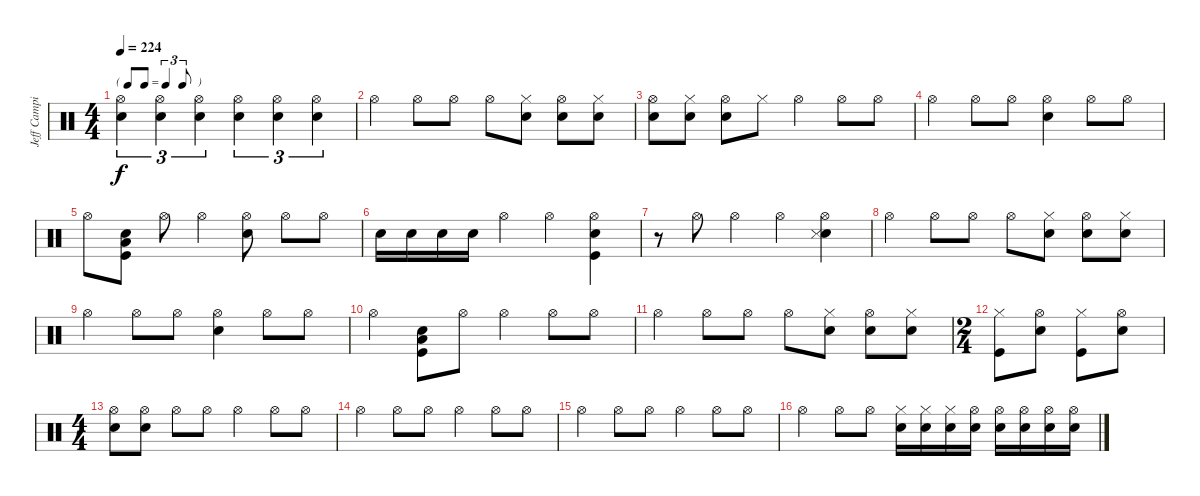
\track ("Jeff Campitelli" "Jeff Campi") {instrument percussion}
\staff {score}
\articulation defaults
\ts (4 4)
\tf triplet8th
\tempo 224
\clef neutral
\ks c
("Hi-Hat (open)" "Snare (hit) 2").4{tu (3 2) dy f} ("Hi-Hat (open)" "Snare (hit) 2").4{tu (3 2)} ("Hi-Hat (open)" "Snare (hit) 2").4{tu (3 2)} ("Hi-Hat (open)" "Snare (hit) 2").4{tu (3 2)} ("Hi-Hat (open)" "Snare (hit) 2").4{tu (3 2)} ("Hi-Hat (open)" "Snare (hit) 2").4{tu (3 2)} |
"Hi-Hat (open)".4 "Hi-Hat (open)".8 "Hi-Hat (open)".8 "Hi-Hat (open)".8 ("Hi-Hat (closed)" "Snare (hit) 2").8 ("Snare (hit) 2" "Hi-Hat (open)").8 ("Hi-Hat (closed)" "Snare (hit) 2").8 |
("Snare (hit) 2" "Hi-Hat (open)").8 ("Snare (hit) 2" "Hi-Hat (closed)").8 ("Snare (hit) 2" "Hi-Hat (open)").8 "Hi-Hat (closed)".8 "Hi-Hat (open)".4 "Hi-Hat (open)".8 "Hi-Hat (open)".8 |
"Hi-Hat (open)".4 "Hi-Hat (open)".8 "Hi-Hat (open)".8 ("Snare (hit) 2" "Hi-Hat (open)").4 "Hi-Hat (open)".8 "Hi-Hat (open)".8 |
"Hi-Hat (open)".8 ("Kick (hit)" "Snare (hit) 2" "Low Floor Tom (hit)").8 "Hi-Hat (open)".8 "Hi-Hat (open)".4 ("Snare (hit) 2" "Hi-Hat (open)").8 "Hi-Hat (open)".8 "Hi-Hat (open)".8 |
"Snare (hit) 2".16 "Snare (hit) 2".16 "Snare (hit) 2".16 "Snare (hit) 2".16 "Hi-Hat (open)".4 "Hi-Hat (open)".4 ("Snare (hit) 2" "Hi-Hat (open)" "Kick (hit)").4 |
r.8 "Hi-Hat (open)".8 "Hi-Hat (open)".4 "Hi-Hat (open)".4 ("Hi-Hat (open)" "Snare (hit) 2" "Metronome (hit)").4 |
"Hi-Hat (open)".4 "Hi-Hat (open)".8 "Hi-Hat (open)".8 "Hi-Hat (open)".8 ("Hi-Hat (closed)" "Snare (hit) 2").8 ("Snare (hit) 2" "Hi-Hat (open)").8 ("Hi-Hat (closed)" "Snare (hit) 2").8 |
"Hi-Hat (open)".4 "Hi-Hat (open)".8 "Hi-Hat (open)".8 ("Snare (hit) 2" "Hi-Hat (open)").4 "Hi-Hat (open)".8 "Hi-Hat (open)".8 |
"Hi-Hat (open)".4 ("Kick (hit)" "Snare (hit) 2" "Low Floor Tom (hit)").8 "Hi-Hat (open)".8 "Hi-Hat (open)".4 "Hi-Hat (open)".8 "Hi-Hat (open)".8 |
"Hi-Hat (open)".4 "Hi-Hat (open)".8 "Hi-Hat (open)".8 "Hi-Hat (open)".8 ("Hi-Hat (closed)" "Snare (hit) 2").8 ("Snare (hit) 2" "Hi-Hat (open)").8 ("Hi-Hat (closed)" "Snare (hit) 2").8 |
\ts (2 4)
("Hi-Hat (closed)" "Kick (hit)").8 ("Snare (hit) 2" "Hi-Hat (open)").8 ("Hi-Hat (closed)" "Kick (hit)").8 ("Snare (hit) 2" "Hi-Hat (open)").8 |
\ts (4 4)
("Hi-Hat (open)" "Snare (hit) 2").8 ("Hi-Hat (open)" "Snare (hit) 2").8 "Hi-Hat (open)".8 "Hi-Hat (open)".8 "Hi-Hat (open)".4 "Hi-Hat (open)".8 "Hi-Hat (open)".8 |
"Hi-Hat (open)".4 "Hi-Hat (open)".8 "Hi-Hat (open)".8 "Hi-Hat (open)".4 "Hi-Hat (open)".8 "Hi-Hat (open)".8 |
"Hi-Hat (open)".4 "Hi-Hat (open)".8 "Hi-Hat (open)".8 "Hi-Hat (open)".4 "Hi-Hat (open)".8 "Hi-Hat (open)".8 |
"Hi-Hat (open)".4 "Hi-Hat (open)".8 "Hi-Hat (open)".8 ("Hi-Hat (closed)" "Snare (hit) 2").16 ("Hi-Hat (closed)" "Snare (hit) 2").16 ("Hi-Hat (closed)" "Snare (hit) 2").16 ("Hi-Hat (open)" "Snare (hit) 2").16 ("Hi-Hat (open)" "Snare (hit) 2").16 ("Hi-Hat (open)" "Snare (hit) 2").16 ("Hi-Hat (open)" "Snare (hit) 2").16 ("Hi-Hat (open)" "Snare (hit) 2").16
